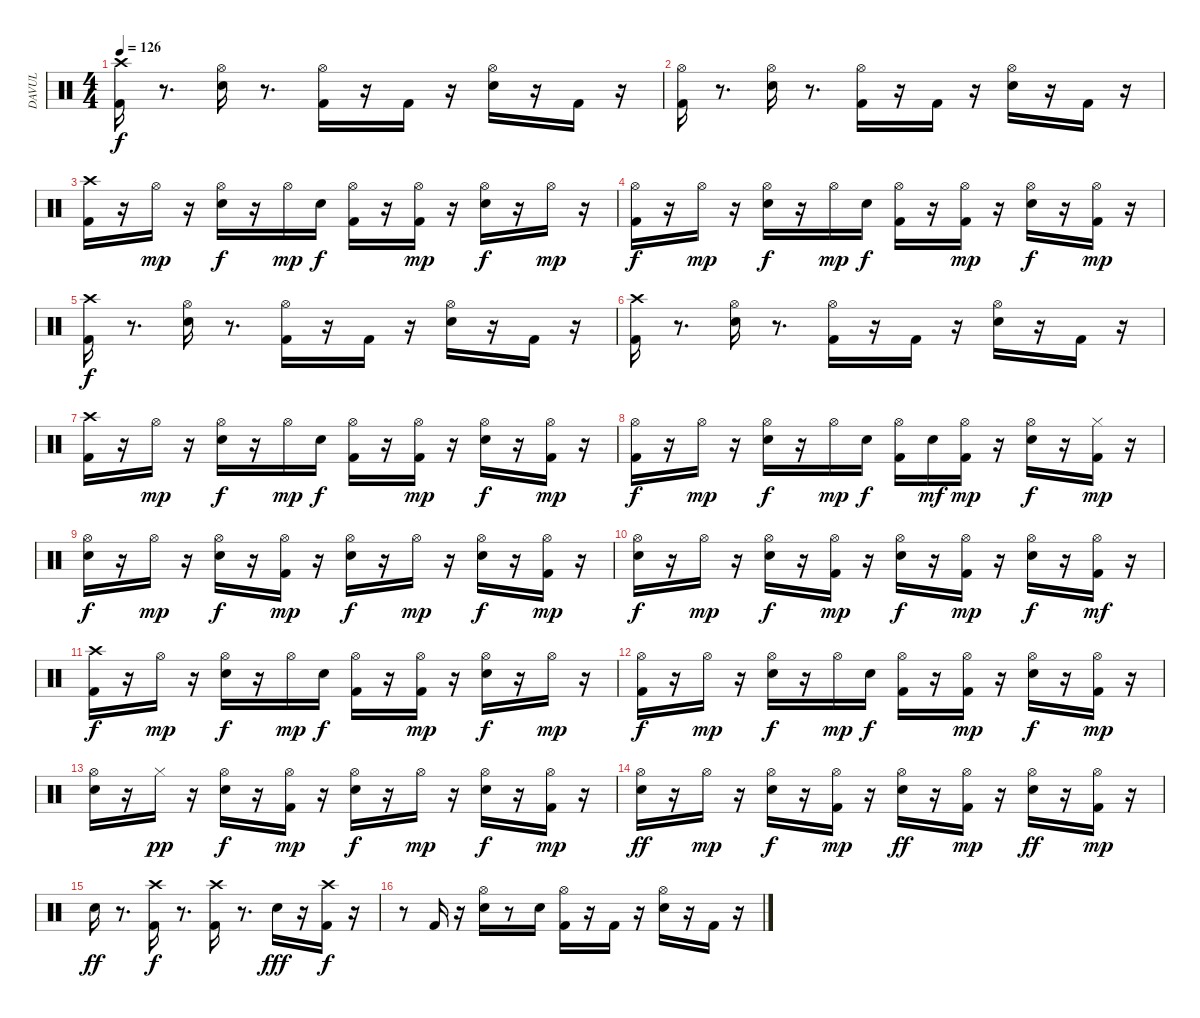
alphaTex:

\track ("DAVUL" "DAVUL") {instrument percussion}
\staff {score}
\articulation defaults
\ts (4 4)
\tempo 126
\clef neutral
\ks c
("Crash high (hit)" "Kick (hit) 2").16{dy f} r.8{d} ("Hi-Hat (open)" "Electric Snare (hit)").16 r.8{d} ("Hi-Hat (open)" "Kick (hit) 2").16 r.16 "Kick (hit) 2".16 r.16 ("Hi-Hat (open)" "Electric Snare (hit)").16 r.16 "Kick (hit) 2".16 r.16 |
("Kick (hit) 2" "Hi-Hat (open)").16 r.8{d} ("Hi-Hat (open)" "Electric Snare (hit)").16 r.8{d} ("Hi-Hat (open)" "Kick (hit) 2").16 r.16 "Kick (hit) 2".16 r.16 ("Hi-Hat (open)" "Electric Snare (hit)").16 r.16 "Kick (hit) 2".16 r.16 |
("Kick (hit) 2" "Crash high (hit)").16 r.16 "Hi-Hat (open)".16{dy mp} r.16 ("Hi-Hat (open)" "Electric Snare (hit)").16{dy f} r.16 "Hi-Hat (open)".16{dy mp} "Electric Snare (hit)".16{dy f} ("Hi-Hat (open)" "Kick (hit) 2").16 r.16 ("Hi-Hat (open)" "Kick (hit) 2").16{dy mp} r.16 ("Hi-Hat (open)" "Electric Snare (hit)").16{dy f} r.16 "Hi-Hat (open)".16{dy mp} r.16 |
("Kick (hit) 2" "Hi-Hat (open)").16{dy f} r.16 "Hi-Hat (open)".16{dy mp} r.16 ("Hi-Hat (open)" "Electric Snare (hit)").16{dy f} r.16 "Hi-Hat (open)".16{dy mp} "Electric Snare (hit)".16{dy f} ("Hi-Hat (open)" "Kick (hit) 2").16 r.16 ("Hi-Hat (open)" "Kick (hit) 2").16{dy mp} r.16 ("Hi-Hat (open)" "Electric Snare (hit)").16{dy f} r.16 ("Kick (hit) 2" "Hi-Hat (open)").16{dy mp} r.16 |
("Crash high (hit)" "Kick (hit) 2").16{dy f} r.8{d} ("Hi-Hat (open)" "Electric Snare (hit)").16 r.8{d} ("Hi-Hat (open)" "Kick (hit) 2").16 r.16 "Kick (hit) 2".16 r.16 ("Hi-Hat (open)" "Electric Snare (hit)").16 r.16 "Kick (hit) 2".16 r.16 |
("Kick (hit) 2" "Crash high (hit)").16 r.8{d} ("Hi-Hat (open)" "Electric Snare (hit)").16 r.8{d} ("Hi-Hat (open)" "Kick (hit) 2").16 r.16 "Kick (hit) 2".16 r.16 ("Hi-Hat (open)" "Electric Snare (hit)").16 r.16 "Kick (hit) 2".16 r.16 |
("Kick (hit) 2" "Crash high (hit)").16 r.16 "Hi-Hat (open)".16{dy mp} r.16 ("Hi-Hat (open)" "Electric Snare (hit)").16{dy f} r.16 "Hi-Hat (open)".16{dy mp} "Electric Snare (hit)".16{dy f} ("Hi-Hat (open)" "Kick (hit) 2").16 r.16 ("Hi-Hat (open)" "Kick (hit) 2").16{dy mp} r.16 ("Hi-Hat (open)" "Electric Snare (hit)").16{dy f} r.16 ("Hi-Hat (open)" "Kick (hit) 2").16{dy mp} r.16 |
("Kick (hit) 2" "Hi-Hat (open)").16{dy f} r.16 "Hi-Hat (open)".16{dy mp} r.16 ("Hi-Hat (open)" "Electric Snare (hit)").16{dy f} r.16 "Hi-Hat (open)".16{dy mp} "Electric Snare (hit)".16{dy f} ("Hi-Hat (open)" "Kick (hit) 2").16 "Electric Snare (hit)".16{dy mf} ("Hi-Hat (open)" "Kick (hit) 2").16{dy mp} r.16 ("Hi-Hat (open)" "Electric Snare (hit)").16{dy f} r.16 ("Kick (hit) 2" "Hi-Hat (closed)").16{dy mp} r.16 |
("Electric Snare (hit)" "Hi-Hat (open)").16{dy f} r.16 "Hi-Hat (open)".16{dy mp} r.16 ("Hi-Hat (open)" "Electric Snare (hit)").16{dy f} r.16 ("Hi-Hat (open)" "Kick (hit) 2").16{dy mp} r.16 ("Hi-Hat (open)" "Electric Snare (hit)").16{dy f} r.16 "Hi-Hat (open)".16{dy mp} r.16 ("Hi-Hat (open)" "Electric Snare (hit)").16{dy f} r.16 ("Hi-Hat (open)" "Kick (hit) 2").16{dy mp} r.16 |
("Hi-Hat (open)" "Electric Snare (hit)").16{dy f} r.16 "Hi-Hat (open)".16{dy mp} r.16 ("Hi-Hat (open)" "Electric Snare (hit)").16{dy f} r.16 ("Hi-Hat (open)" "Kick (hit) 2").16{dy mp} r.16 ("Hi-Hat (open)" "Electric Snare (hit)").16{dy f} r.16 ("Hi-Hat (open)" "Kick (hit) 2").16{dy mp} r.16 ("Hi-Hat (open)" "Electric Snare (hit)").16{dy f} r.16 ("Kick (hit) 2" "Hi-Hat (open)").16{dy mf} r.16 |
("Kick (hit) 2" "Crash high (hit)").16{dy f} r.16 "Hi-Hat (open)".16{dy mp} r.16 ("Hi-Hat (open)" "Electric Snare (hit)").16{dy f} r.16 "Hi-Hat (open)".16{dy mp} "Electric Snare (hit)".16{dy f} ("Hi-Hat (open)" "Kick (hit) 2").16 r.16 ("Hi-Hat (open)" "Kick (hit) 2").16{dy mp} r.16 ("Hi-Hat (open)" "Electric Snare (hit)").16{dy f} r.16 "Hi-Hat (open)".16{dy mp} r.16 |
("Kick (hit) 2" "Hi-Hat (open)").16{dy f} r.16 "Hi-Hat (open)".16{dy mp} r.16 ("Hi-Hat (open)" "Electric Snare (hit)").16{dy f} r.16 "Hi-Hat (open)".16{dy mp} "Electric Snare (hit)".16{dy f} ("Hi-Hat (open)" "Kick (hit) 2").16 r.16 ("Hi-Hat (open)" "Kick (hit) 2").16{dy mp} r.16 ("Hi-Hat (open)" "Electric Snare (hit)").16{dy f} r.16 ("Kick (hit) 2" "Hi-Hat (open)").16{dy mp} r.16 |
("Electric Snare (hit)" "Hi-Hat (open)").16 r.16 "Hi-Hat (closed)".16{dy pp} r.16 ("Electric Snare (hit)" "Hi-Hat (open)").16{dy f} r.16 ("Kick (hit) 2" "Hi-Hat (open)").16{dy mp} r.16 ("Electric Snare (hit)" "Hi-Hat (open)").16{dy f} r.16 "Hi-Hat (open)".16{dy mp} r.16 ("Electric Snare (hit)" "Hi-Hat (open)").16{dy f} r.16 ("Kick (hit) 2" "Hi-Hat (open)").16{dy mp} r.16 |
("Hi-Hat (open)" "Electric Snare (hit)").16{dy ff} r.16 "Hi-Hat (open)".16{dy mp} r.16 ("Electric Snare (hit)" "Hi-Hat (open)").16{dy f} r.16 ("Kick (hit) 2" "Hi-Hat (open)").16{dy mp} r.16 ("Electric Snare (hit)" "Hi-Hat (open)").16{dy ff} r.16 ("Kick (hit) 2" "Hi-Hat (open)").16{dy mp} r.16 ("Electric Snare (hit)" "Hi-Hat (open)").16{dy ff} r.16 ("Kick (hit) 2" "Hi-Hat (open)").16{dy mp} r.16 |
"Electric Snare (hit)".16{dy ff} r.8{d} ("Kick (hit) 2" "Crash high (hit)").16{dy f} r.8{d} ("Kick (hit) 2" "Crash high (hit)").16 r.8{d} "Electric Snare (hit)".16{dy fff} r.16 ("Kick (hit) 2" "Crash high (hit)").16{dy f} r.16 |
r.8 "Kick (hit) 2".16 r.16 ("Hi-Hat (open)" "Electric Snare (hit)").16 r.8 "Electric Snare (hit)".16 ("Hi-Hat (open)" "Kick (hit) 2").16 r.16 "Kick (hit) 2".16 r.16 ("Hi-Hat (open)" "Electric Snare (hit)").16 r.16 "Kick (hit) 2".16 r.16
